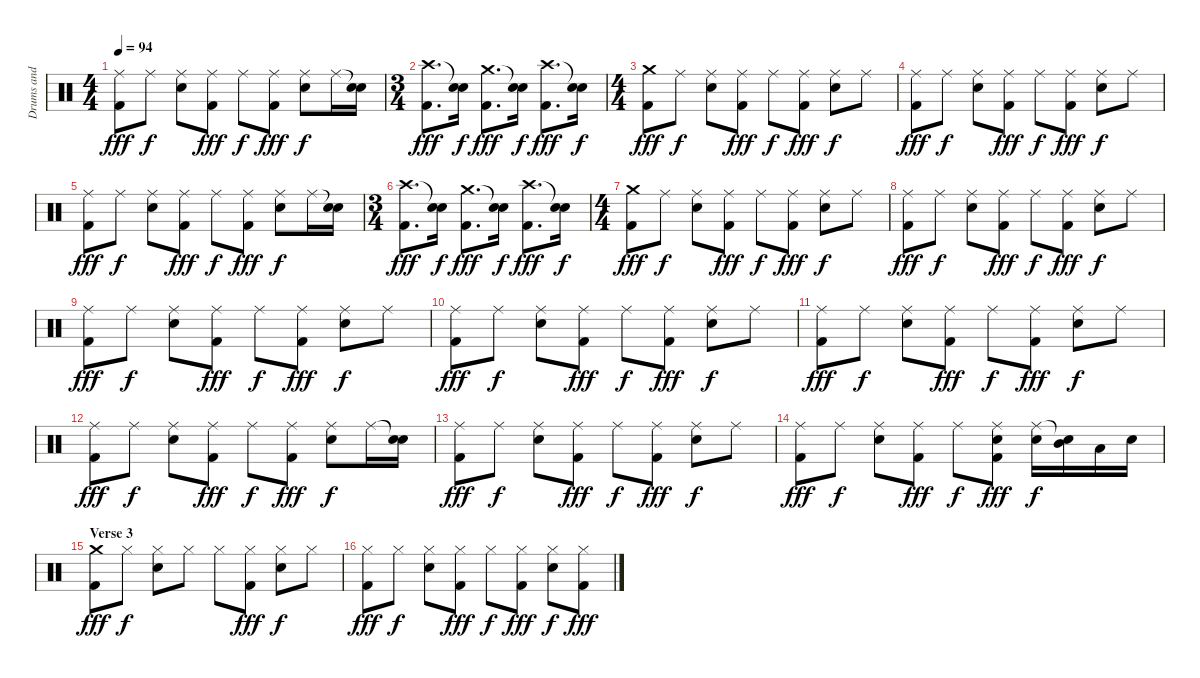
\track ("Drums and Percussion" "Drums and ") {instrument percussion}
\staff {score}
\articulation defaults
\ts (4 4)
\tempo 94
\clef neutral
\ks c
("Ride (middle)" "Kick (hit) 2").8{dy fff} "Ride (middle)".8{dy f} ("Ride (middle)" "Snare (hit) 2").8 ("Ride (middle)" "Kick (hit) 2").8{dy fff} "Ride (middle)".8{dy f} ("Ride (middle)" "Kick (hit) 2").8{dy fff} ("Ride (middle)" "Snare (hit) 2").8{dy f} "Ride (middle)".16 ("Snare (hit)"{t} "Snare (hit) 2").16 |
\ts (3 4)
("Crash high (hit)" "Kick (hit) 2").8{d dy fff} ("Snare (hit)"{t} "Snare (hit) 2").16{dy f} ("Crash medium (hit)" "Kick (hit) 2").8{d dy fff} ("Snare (hit)"{t} "Snare (hit) 2").16{dy f} ("Crash high (hit)" "Kick (hit) 2").8{d dy fff} ("Snare (hit)"{t} "Snare (hit) 2").16{dy f} |
\ts (4 4)
("Crash medium (hit)" "Kick (hit) 2").8{dy fff} "Ride (middle)".8{dy f} ("Ride (middle)" "Snare (hit) 2").8 ("Ride (middle)" "Kick (hit) 2").8{dy fff} "Ride (middle)".8{dy f} ("Ride (middle)" "Kick (hit) 2").8{dy fff} ("Ride (middle)" "Snare (hit) 2").8{dy f} "Ride (middle)".8 |
("Ride (middle)" "Kick (hit) 2").8{dy fff} "Ride (middle)".8{dy f} ("Ride (middle)" "Snare (hit) 2").8 ("Ride (middle)" "Kick (hit) 2").8{dy fff} "Ride (middle)".8{dy f} ("Ride (middle)" "Kick (hit) 2").8{dy fff} ("Ride (middle)" "Snare (hit) 2").8{dy f} "Ride (middle)".8 |
("Ride (middle)" "Kick (hit) 2").8{dy fff} "Ride (middle)".8{dy f} ("Ride (middle)" "Snare (hit) 2").8 ("Ride (middle)" "Kick (hit) 2").8{dy fff} "Ride (middle)".8{dy f} ("Ride (middle)" "Kick (hit) 2").8{dy fff} ("Ride (middle)" "Snare (hit) 2").8{dy f} "Ride (middle)".16 ("Snare (hit)"{t} "Snare (hit) 2").16 |
\ts (3 4)
("Crash high (hit)" "Kick (hit) 2").8{d dy fff} ("Snare (hit)"{t} "Snare (hit) 2").16{dy f} ("Crash medium (hit)" "Kick (hit) 2").8{d dy fff} ("Snare (hit)"{t} "Snare (hit) 2").16{dy f} ("Crash high (hit)" "Kick (hit) 2").8{d dy fff} ("Snare (hit)"{t} "Snare (hit) 2").16{dy f} |
\ts (4 4)
("Crash medium (hit)" "Kick (hit) 2").8{dy fff} "Ride (middle)".8{dy f} ("Ride (middle)" "Snare (hit) 2").8 ("Ride (middle)" "Kick (hit) 2").8{dy fff} "Ride (middle)".8{dy f} ("Ride (middle)" "Kick (hit) 2").8{dy fff} ("Ride (middle)" "Snare (hit) 2").8{dy f} "Ride (middle)".8 |
("Ride (middle)" "Kick (hit) 2").8{dy fff} "Ride (middle)".8{dy f} ("Ride (middle)" "Snare (hit) 2").8 ("Ride (middle)" "Kick (hit) 2").8{dy fff} "Ride (middle)".8{dy f} ("Ride (middle)" "Kick (hit) 2").8{dy fff} ("Ride (middle)" "Snare (hit) 2").8{dy f} "Ride (middle)".8 |
("Ride (middle)" "Kick (hit) 2").8{dy fff} "Ride (middle)".8{dy f} ("Ride (middle)" "Snare (hit) 2").8 ("Ride (middle)" "Kick (hit) 2").8{dy fff} "Ride (middle)".8{dy f} ("Ride (middle)" "Kick (hit) 2").8{dy fff} ("Ride (middle)" "Snare (hit) 2").8{dy f} "Ride (middle)".8 |
("Ride (middle)" "Kick (hit) 2").8{dy fff} "Ride (middle)".8{dy f} ("Ride (middle)" "Snare (hit) 2").8 ("Ride (middle)" "Kick (hit) 2").8{dy fff} "Ride (middle)".8{dy f} ("Ride (middle)" "Kick (hit) 2").8{dy fff} ("Ride (middle)" "Snare (hit) 2").8{dy f} "Ride (middle)".8 |
("Ride (middle)" "Kick (hit) 2").8{dy fff} "Ride (middle)".8{dy f} ("Ride (middle)" "Snare (hit) 2").8 ("Ride (middle)" "Kick (hit) 2").8{dy fff} "Ride (middle)".8{dy f} ("Ride (middle)" "Kick (hit) 2").8{dy fff} ("Ride (middle)" "Snare (hit) 2").8{dy f} "Ride (middle)".8 |
("Ride (middle)" "Kick (hit) 2").8{dy fff} "Ride (middle)".8{dy f} ("Ride (middle)" "Snare (hit) 2").8 ("Ride (middle)" "Kick (hit) 2").8{dy fff} "Ride (middle)".8{dy f} ("Ride (middle)" "Kick (hit) 2").8{dy fff} ("Ride (middle)" "Snare (hit) 2").8{dy f} "Ride (middle)".16 ("Snare (hit)"{t} "Snare (hit) 2").16 |
("Ride (middle)" "Kick (hit) 2").8{dy fff} "Ride (middle)".8{dy f} ("Ride (middle)" "Snare (hit) 2").8 ("Ride (middle)" "Kick (hit) 2").8{dy fff} "Ride (middle)".8{dy f} ("Ride (middle)" "Kick (hit) 2").8{dy fff} ("Ride (middle)" "Snare (hit) 2").8{dy f} "Ride (middle)".8 |
("Ride (middle)" "Kick (hit) 2").8{dy fff} "Ride (middle)".8{dy f} ("Ride (middle)" "Snare (hit) 2").8 ("Ride (middle)" "Kick (hit) 2").8{dy fff} "Ride (middle)".8{dy f} ("Ride (middle)" "Snare (hit) 2" "Kick (hit) 2").8{dy fff} ("Ride (middle)" "Snare (hit) 2").16{dy f} ("Snare (hit)"{t} "Mid Tom (hit)").16 "Low Tom (hit)".16 "Snare (hit) 2".16 |
\section ("" "Verse 3")
("Crash medium (hit)" "Kick (hit) 2").8{dy fff} "Hi-Hat (closed)".8{dy f} ("Hi-Hat (closed)" "Snare (hit) 2").8 "Hi-Hat (closed)".8 "Hi-Hat (closed)".8 ("Hi-Hat (closed)" "Kick (hit) 2").8{dy fff} ("Hi-Hat (closed)" "Snare (hit) 2").8{dy f} "Hi-Hat (closed)".8 |
("Hi-Hat (closed)" "Kick (hit) 2").8{dy fff} "Hi-Hat (closed)".8{dy f} ("Hi-Hat (closed)" "Snare (hit) 2").8 ("Hi-Hat (closed)" "Kick (hit) 2").8{dy fff} "Hi-Hat (closed)".8{dy f} ("Hi-Hat (closed)" "Kick (hit) 2").8{dy fff} ("Hi-Hat (closed)" "Snare (hit) 2").8{dy f} ("Hi-Hat (closed)" "Kick (hit) 2").8{dy fff}
